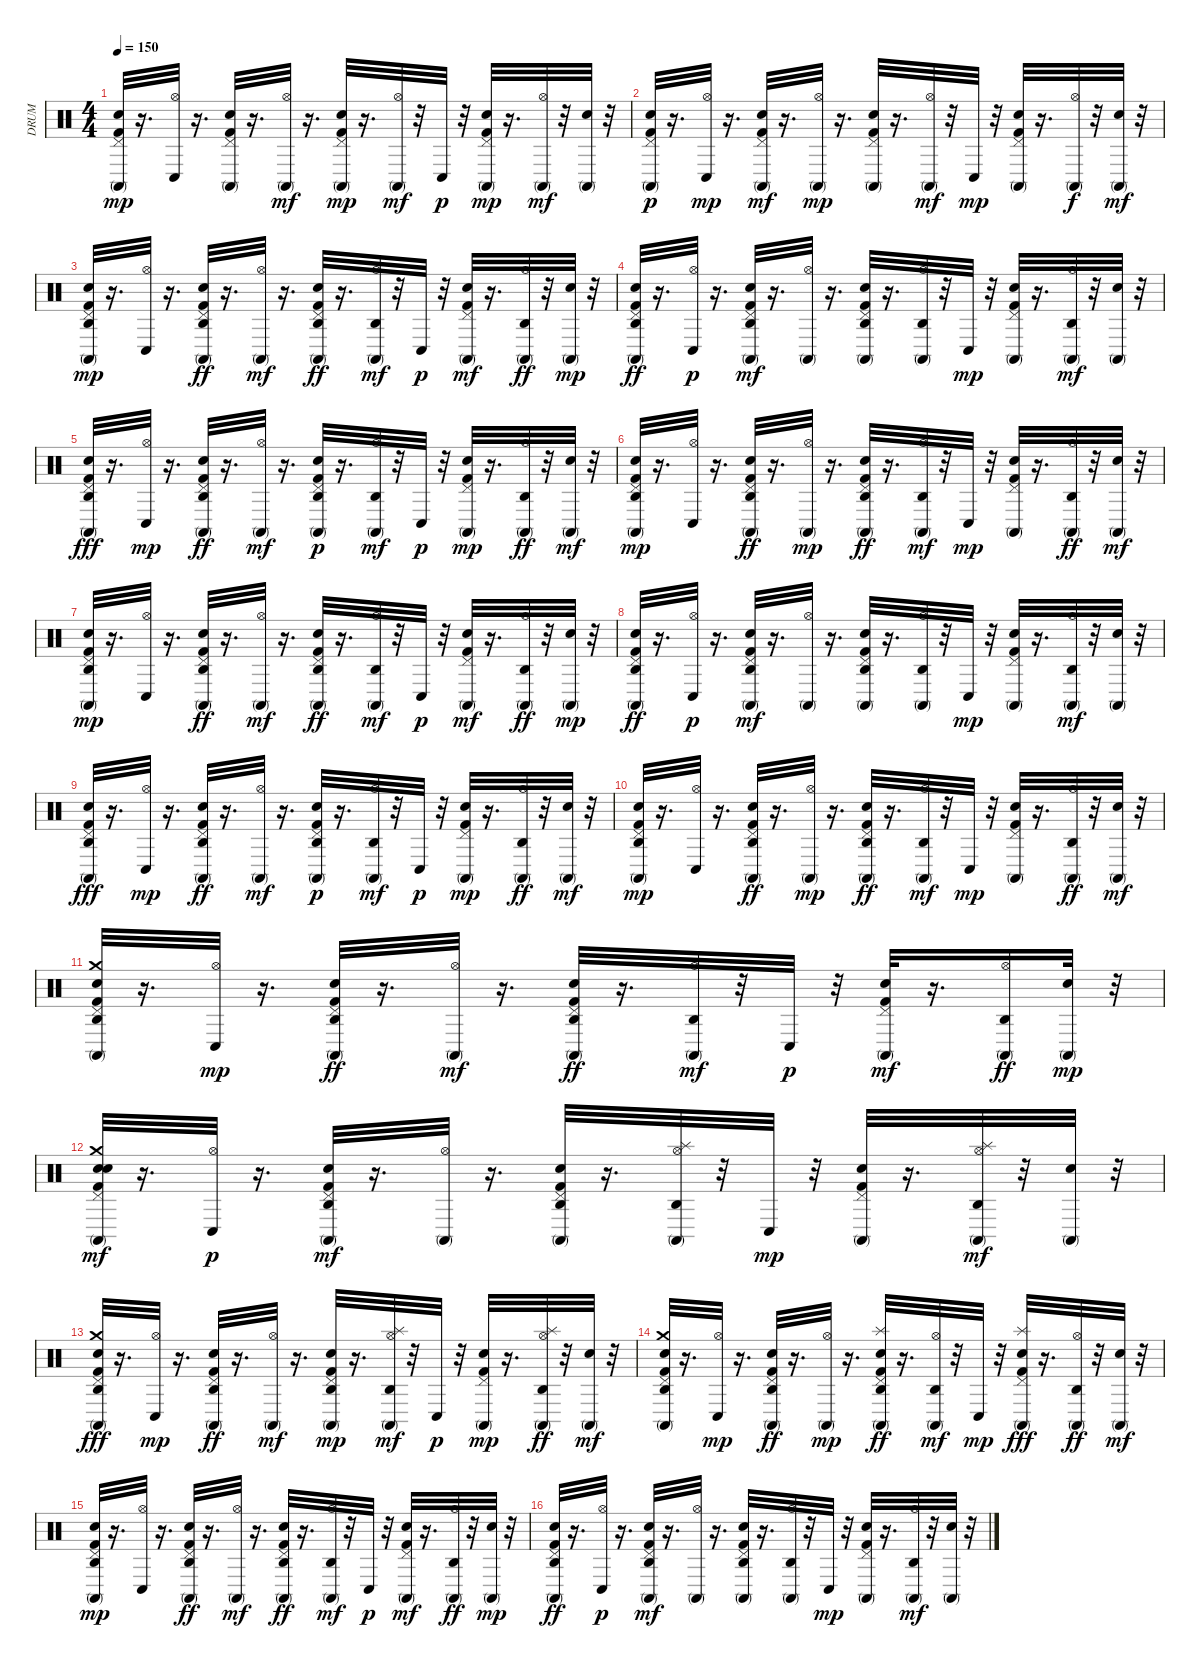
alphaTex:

\track ("DRUM" "DRUM") {instrument percussion}
\staff {score}
\articulation defaults
\ts (4 4)
\tempo 150
\clef neutral
\ks c
("Kick (hit) 2" "Hand Clap (hit)" "Pedal Hi-Hat (hit)" "Conga high (mute)").32{dy mp} r.16{d} ("Hi-Hat (open)" "Conga low (hit)").32 r.16{d} ("Kick (hit) 2" "Hand Clap (hit)" "Pedal Hi-Hat (hit)" "Conga high (mute)").32 r.16{d} ("Hi-Hat (open)" "Conga high (mute)").32{dy mf} r.16{d} ("Kick (hit) 2" "Hand Clap (hit)" "Pedal Hi-Hat (hit)" "Conga high (mute)").32{dy mp} r.16{d} ("Hi-Hat (open)" "Conga high (mute)").32{dy mf} r.32 "Conga low (hit)".32{dy p} r.32 ("Kick (hit) 2" "Hand Clap (hit)" "Pedal Hi-Hat (hit)" "Conga high (mute)").32{dy mp} r.16{d} ("Hi-Hat (open)" "Conga high (mute)").32{dy mf} r.32 ("Hand Clap (hit)" "Conga high (mute)").32 r.32 |
("Kick (hit) 2" "Hand Clap (hit)" "Pedal Hi-Hat (hit)" "Conga high (mute)").32{dy p} r.16{d} ("Hi-Hat (open)" "Conga low (hit)").32{dy mp} r.16{d} ("Kick (hit) 2" "Hand Clap (hit)" "Pedal Hi-Hat (hit)" "Conga high (mute)").32{dy mf} r.16{d} ("Hi-Hat (open)" "Conga high (mute)").32{dy mp} r.16{d} ("Kick (hit) 2" "Hand Clap (hit)" "Pedal Hi-Hat (hit)" "Conga high (mute)").32 r.16{d} ("Hi-Hat (open)" "Conga high (mute)").32{dy mf} r.32 "Conga low (hit)".32{dy mp} r.32 ("Kick (hit) 2" "Hand Clap (hit)" "Pedal Hi-Hat (hit)" "Conga high (mute)").32 r.16{d} ("Hi-Hat (open)" "Conga high (mute)").32{dy f} r.32 ("Hand Clap (hit)" "Conga high (mute)").32{dy mf} r.32 |
("Kick (hit) 2" "Hand Clap (hit)" "Pedal Hi-Hat (hit)" "Conga high (mute)" "Agogo high (hit)").32{dy mp} r.16{d} ("Hi-Hat (open)" "Conga low (hit)").32 r.16{d} ("Kick (hit) 2" "Hand Clap (hit)" "Pedal Hi-Hat (hit)" "Conga high (mute)" "Agogo high (hit)").32{dy ff} r.16{d} ("Hi-Hat (open)" "Conga high (mute)").32{dy mf} r.16{d} ("Kick (hit) 2" "Hand Clap (hit)" "Pedal Hi-Hat (hit)" "Conga high (mute)" "Agogo high (hit)").32{dy ff} r.16{d} ("Hi-Hat (open)" "Conga high (mute)" "Agogo high (hit)").32{dy mf} r.32 "Conga low (hit)".32{dy p} r.32 ("Kick (hit) 2" "Hand Clap (hit)" "Pedal Hi-Hat (hit)" "Conga high (mute)").32{dy mf} r.16{d} ("Hi-Hat (open)" "Conga high (mute)" "Agogo high (hit)").32{dy ff} r.32 ("Hand Clap (hit)" "Conga high (mute)").32{dy mp} r.32 |
("Kick (hit) 2" "Hand Clap (hit)" "Pedal Hi-Hat (hit)" "Conga high (mute)" "Agogo high (hit)").32{dy ff} r.16{d} ("Hi-Hat (open)" "Conga low (hit)").32{dy p} r.16{d} ("Kick (hit) 2" "Hand Clap (hit)" "Pedal Hi-Hat (hit)" "Conga high (mute)" "Agogo high (hit)").32{dy mf} r.16{d} ("Hi-Hat (open)" "Conga high (mute)").32 r.16{d} ("Kick (hit) 2" "Hand Clap (hit)" "Pedal Hi-Hat (hit)" "Conga high (mute)" "Agogo high (hit)").32 r.16{d} ("Hi-Hat (open)" "Conga high (mute)" "Agogo high (hit)").32 r.32 "Conga low (hit)".32{dy mp} r.32 ("Kick (hit) 2" "Hand Clap (hit)" "Pedal Hi-Hat (hit)" "Conga high (mute)").32 r.16{d} ("Hi-Hat (open)" "Conga high (mute)" "Agogo high (hit)").32{dy mf} r.32 ("Hand Clap (hit)" "Conga high (mute)").32 r.32 |
("Kick (hit) 2" "Hand Clap (hit)" "Pedal Hi-Hat (hit)" "Conga high (mute)" "Agogo high (hit)").32{dy fff} r.16{d} ("Hi-Hat (open)" "Conga low (hit)").32{dy mp} r.16{d} ("Kick (hit) 2" "Hand Clap (hit)" "Pedal Hi-Hat (hit)" "Conga high (mute)" "Agogo high (hit)").32{dy ff} r.16{d} ("Hi-Hat (open)" "Conga high (mute)").32{dy mf} r.16{d} ("Kick (hit) 2" "Hand Clap (hit)" "Pedal Hi-Hat (hit)" "Conga high (mute)" "Agogo high (hit)").32{dy p} r.16{d} ("Hi-Hat (open)" "Conga high (mute)" "Agogo high (hit)").32{dy mf} r.32 "Conga low (hit)".32{dy p} r.32 ("Kick (hit) 2" "Hand Clap (hit)" "Pedal Hi-Hat (hit)" "Conga high (mute)").32{dy mp} r.16{d} ("Hi-Hat (open)" "Conga high (mute)" "Agogo high (hit)").32{dy ff} r.32 ("Hand Clap (hit)" "Conga high (mute)").32{dy mf} r.32 |
("Kick (hit) 2" "Hand Clap (hit)" "Pedal Hi-Hat (hit)" "Conga high (mute)" "Agogo high (hit)").32{dy mp} r.16{d} ("Hi-Hat (open)" "Conga low (hit)").32 r.16{d} ("Kick (hit) 2" "Hand Clap (hit)" "Pedal Hi-Hat (hit)" "Conga high (mute)" "Agogo high (hit)").32{dy ff} r.16{d} ("Hi-Hat (open)" "Conga high (mute)").32{dy mp} r.16{d} ("Kick (hit) 2" "Hand Clap (hit)" "Pedal Hi-Hat (hit)" "Conga high (mute)" "Agogo high (hit)").32{dy ff} r.16{d} ("Hi-Hat (open)" "Conga high (mute)" "Agogo high (hit)").32{dy mf} r.32 "Conga low (hit)".32{dy mp} r.32 ("Kick (hit) 2" "Hand Clap (hit)" "Pedal Hi-Hat (hit)" "Conga high (mute)").32 r.16{d} ("Hi-Hat (open)" "Conga high (mute)" "Agogo high (hit)").32{dy ff} r.32 ("Hand Clap (hit)" "Conga high (mute)").32{dy mf} r.32 |
("Kick (hit) 2" "Hand Clap (hit)" "Pedal Hi-Hat (hit)" "Conga high (mute)" "Agogo high (hit)").32{dy mp} r.16{d} ("Hi-Hat (open)" "Conga low (hit)").32 r.16{d} ("Kick (hit) 2" "Hand Clap (hit)" "Pedal Hi-Hat (hit)" "Conga high (mute)" "Agogo high (hit)").32{dy ff} r.16{d} ("Hi-Hat (open)" "Conga high (mute)").32{dy mf} r.16{d} ("Kick (hit) 2" "Hand Clap (hit)" "Pedal Hi-Hat (hit)" "Conga high (mute)" "Agogo high (hit)").32{dy ff} r.16{d} ("Hi-Hat (open)" "Conga high (mute)" "Agogo high (hit)").32{dy mf} r.32 "Conga low (hit)".32{dy p} r.32 ("Kick (hit) 2" "Hand Clap (hit)" "Pedal Hi-Hat (hit)" "Conga high (mute)").32{dy mf} r.16{d} ("Hi-Hat (open)" "Conga high (mute)" "Agogo high (hit)").32{dy ff} r.32 ("Hand Clap (hit)" "Conga high (mute)").32{dy mp} r.32 |
("Kick (hit) 2" "Hand Clap (hit)" "Pedal Hi-Hat (hit)" "Conga high (mute)" "Agogo high (hit)").32{dy ff} r.16{d} ("Hi-Hat (open)" "Conga low (hit)").32{dy p} r.16{d} ("Kick (hit) 2" "Hand Clap (hit)" "Pedal Hi-Hat (hit)" "Conga high (mute)" "Agogo high (hit)").32{dy mf} r.16{d} ("Hi-Hat (open)" "Conga high (mute)").32 r.16{d} ("Kick (hit) 2" "Hand Clap (hit)" "Pedal Hi-Hat (hit)" "Conga high (mute)" "Agogo high (hit)").32 r.16{d} ("Hi-Hat (open)" "Conga high (mute)" "Agogo high (hit)").32 r.32 "Conga low (hit)".32{dy mp} r.32 ("Kick (hit) 2" "Hand Clap (hit)" "Pedal Hi-Hat (hit)" "Conga high (mute)").32 r.16{d} ("Hi-Hat (open)" "Conga high (mute)" "Agogo high (hit)").32{dy mf} r.32 ("Hand Clap (hit)" "Conga high (mute)").32 r.32 |
("Kick (hit) 2" "Hand Clap (hit)" "Pedal Hi-Hat (hit)" "Conga high (mute)" "Agogo high (hit)").32{dy fff} r.16{d} ("Hi-Hat (open)" "Conga low (hit)").32{dy mp} r.16{d} ("Kick (hit) 2" "Hand Clap (hit)" "Pedal Hi-Hat (hit)" "Conga high (mute)" "Agogo high (hit)").32{dy ff} r.16{d} ("Hi-Hat (open)" "Conga high (mute)").32{dy mf} r.16{d} ("Kick (hit) 2" "Hand Clap (hit)" "Pedal Hi-Hat (hit)" "Conga high (mute)" "Agogo high (hit)").32{dy p} r.16{d} ("Hi-Hat (open)" "Conga high (mute)" "Agogo high (hit)").32{dy mf} r.32 "Conga low (hit)".32{dy p} r.32 ("Kick (hit) 2" "Hand Clap (hit)" "Pedal Hi-Hat (hit)" "Conga high (mute)").32{dy mp} r.16{d} ("Hi-Hat (open)" "Conga high (mute)" "Agogo high (hit)").32{dy ff} r.32 ("Hand Clap (hit)" "Conga high (mute)").32{dy mf} r.32 |
("Kick (hit) 2" "Hand Clap (hit)" "Pedal Hi-Hat (hit)" "Conga high (mute)" "Agogo high (hit)").32{dy mp} r.16{d} ("Hi-Hat (open)" "Conga low (hit)").32 r.16{d} ("Kick (hit) 2" "Hand Clap (hit)" "Pedal Hi-Hat (hit)" "Conga high (mute)" "Agogo high (hit)").32{dy ff} r.16{d} ("Hi-Hat (open)" "Conga high (mute)").32{dy mp} r.16{d} ("Kick (hit) 2" "Hand Clap (hit)" "Pedal Hi-Hat (hit)" "Conga high (mute)" "Agogo high (hit)").32{dy ff} r.16{d} ("Hi-Hat (open)" "Conga high (mute)" "Agogo high (hit)").32{dy mf} r.32 "Conga low (hit)".32{dy mp} r.32 ("Kick (hit) 2" "Hand Clap (hit)" "Pedal Hi-Hat (hit)" "Conga high (mute)").32 r.16{d} ("Hi-Hat (open)" "Conga high (mute)" "Agogo high (hit)").32{dy ff} r.32 ("Hand Clap (hit)" "Conga high (mute)").32{dy mf} r.32 |
("Kick (hit) 2" "Hand Clap (hit)" "Pedal Hi-Hat (hit)" "Crash medium (hit)" "Conga high (mute)" "Agogo high (hit)").32 r.16{d} ("Hi-Hat (open)" "Conga low (hit)").32{dy mp} r.16{d} ("Kick (hit) 2" "Hand Clap (hit)" "Pedal Hi-Hat (hit)" "Conga high (mute)" "Agogo high (hit)").32{dy ff} r.16{d} ("Hi-Hat (open)" "Conga high (mute)").32{dy mf} r.16{d} ("Kick (hit) 2" "Hand Clap (hit)" "Pedal Hi-Hat (hit)" "Conga high (mute)" "Agogo high (hit)").32{dy ff} r.16{d} ("Hi-Hat (open)" "Conga high (mute)" "Agogo high (hit)").32{dy mf} r.32 "Conga low (hit)".32{dy p} r.32 ("Kick (hit) 2" "Hand Clap (hit)" "Pedal Hi-Hat (hit)" "Conga high (mute)").32{dy mf} r.16{d} ("Hi-Hat (open)" "Conga high (mute)" "Agogo high (hit)").16{dy ff} ("Hand Clap (hit)" "Conga high (mute)").32{dy mp} r.32 |
("Kick (hit) 2" "Hand Clap (hit)" "Hand Clap (hit)" "Pedal Hi-Hat (hit)" "Crash medium (hit)" "Conga high (mute)").32{dy mf} r.16{d} ("Hi-Hat (open)" "Conga low (hit)").32{dy p} r.16{d} ("Kick (hit) 2" "Hand Clap (hit)" "Pedal Hi-Hat (hit)" "Conga high (mute)" "Agogo high (hit)").32{dy mf} r.16{d} ("Hi-Hat (open)" "Conga high (mute)").32 r.16{d} ("Kick (hit) 2" "Hand Clap (hit)" "Pedal Hi-Hat (hit)" "Conga high (mute)" "Agogo high (hit)").32 r.16{d} ("Hi-Hat (open)" "Splash (hit)" "Conga high (mute)" "Agogo high (hit)").32 r.32 "Conga low (hit)".32{dy mp} r.32 ("Kick (hit) 2" "Hand Clap (hit)" "Pedal Hi-Hat (hit)" "Conga high (mute)").32 r.16{d} ("Hi-Hat (open)" "Splash (hit)" "Conga high (mute)" "Agogo high (hit)").32{dy mf} r.32 ("Hand Clap (hit)" "Conga high (mute)").32 r.32 |
("Kick (hit) 2" "Hand Clap (hit)" "Pedal Hi-Hat (hit)" "Crash medium (hit)" "Conga high (mute)" "Agogo high (hit)").32{dy fff} r.16{d} ("Hi-Hat (open)" "Conga low (hit)").32{dy mp} r.16{d} ("Kick (hit) 2" "Hand Clap (hit)" "Pedal Hi-Hat (hit)" "Conga high (mute)" "Agogo high (hit)").32{dy ff} r.16{d} ("Hi-Hat (open)" "Conga high (mute)").32{dy mf} r.16{d} ("Kick (hit) 2" "Hand Clap (hit)" "Pedal Hi-Hat (hit)" "Conga high (mute)" "Agogo high (hit)").32{dy mp} r.16{d} ("Hi-Hat (open)" "Splash (hit)" "Conga high (mute)" "Agogo high (hit)").32{dy mf} r.32 "Conga low (hit)".32{dy p} r.32 ("Kick (hit) 2" "Hand Clap (hit)" "Pedal Hi-Hat (hit)" "Conga high (mute)").32{dy mp} r.16{d} ("Hi-Hat (open)" "Splash (hit)" "Conga high (mute)" "Agogo high (hit)").32{dy ff} r.32 ("Hand Clap (hit)" "Conga high (mute)").32{dy mf} r.32 |
("Kick (hit) 2" "Hand Clap (hit)" "Pedal Hi-Hat (hit)" "Crash medium (hit)" "Conga high (mute)" "Agogo high (hit)").32 r.16{d} ("Hi-Hat (open)" "Conga low (hit)").32{dy mp} r.16{d} ("Kick (hit) 2" "Hand Clap (hit)" "Pedal Hi-Hat (hit)" "Conga high (mute)" "Agogo high (hit)").32{dy ff} r.16{d} ("Hi-Hat (open)" "Conga high (mute)").32{dy mp} r.16{d} ("Kick (hit) 2" "Hand Clap (hit)" "Pedal Hi-Hat (hit)" "Splash (hit)" "Conga high (mute)" "Agogo high (hit)").32{dy ff} r.16{d} ("Hi-Hat (open)" "Conga high (mute)" "Agogo high (hit)").32{dy mf} r.32 "Conga low (hit)".32{dy mp} r.32 ("Kick (hit) 2" "Hand Clap (hit)" "Pedal Hi-Hat (hit)" "Splash (hit)" "Conga high (mute)").32{dy fff} r.16{d} ("Hi-Hat (open)" "Conga high (mute)" "Agogo high (hit)").32{dy ff} r.32 ("Hand Clap (hit)" "Conga high (mute)").32{dy mf} r.32 |
("Kick (hit) 2" "Hand Clap (hit)" "Pedal Hi-Hat (hit)" "Conga high (mute)" "Agogo high (hit)").32{dy mp} r.16{d} ("Hi-Hat (open)" "Conga low (hit)").32 r.16{d} ("Kick (hit) 2" "Hand Clap (hit)" "Pedal Hi-Hat (hit)" "Conga high (mute)" "Agogo high (hit)").32{dy ff} r.16{d} ("Hi-Hat (open)" "Conga high (mute)").32{dy mf} r.16{d} ("Kick (hit) 2" "Hand Clap (hit)" "Pedal Hi-Hat (hit)" "Conga high (mute)" "Agogo high (hit)").32{dy ff} r.16{d} ("Hi-Hat (open)" "Conga high (mute)" "Agogo high (hit)").32{dy mf} r.32 "Conga low (hit)".32{dy p} r.32 ("Kick (hit) 2" "Hand Clap (hit)" "Pedal Hi-Hat (hit)" "Conga high (mute)").32{dy mf} r.16{d} ("Hi-Hat (open)" "Conga high (mute)" "Agogo high (hit)").32{dy ff} r.32 ("Hand Clap (hit)" "Conga high (mute)").32{dy mp} r.32 |
("Kick (hit) 2" "Hand Clap (hit)" "Pedal Hi-Hat (hit)" "Conga high (mute)" "Agogo high (hit)").32{dy ff} r.16{d} ("Hi-Hat (open)" "Conga low (hit)").32{dy p} r.16{d} ("Kick (hit) 2" "Hand Clap (hit)" "Pedal Hi-Hat (hit)" "Conga high (mute)" "Agogo high (hit)").32{dy mf} r.16{d} ("Hi-Hat (open)" "Conga high (mute)").32 r.16{d} ("Kick (hit) 2" "Hand Clap (hit)" "Pedal Hi-Hat (hit)" "Conga high (mute)" "Agogo high (hit)").32 r.16{d} ("Hi-Hat (open)" "Conga high (mute)" "Agogo high (hit)").32 r.32 "Conga low (hit)".32{dy mp} r.32 ("Kick (hit) 2" "Hand Clap (hit)" "Pedal Hi-Hat (hit)" "Conga high (mute)").32 r.16{d} ("Hi-Hat (open)" "Conga high (mute)" "Agogo high (hit)").32{dy mf} r.32 ("Hand Clap (hit)" "Conga high (mute)").32 r.32
